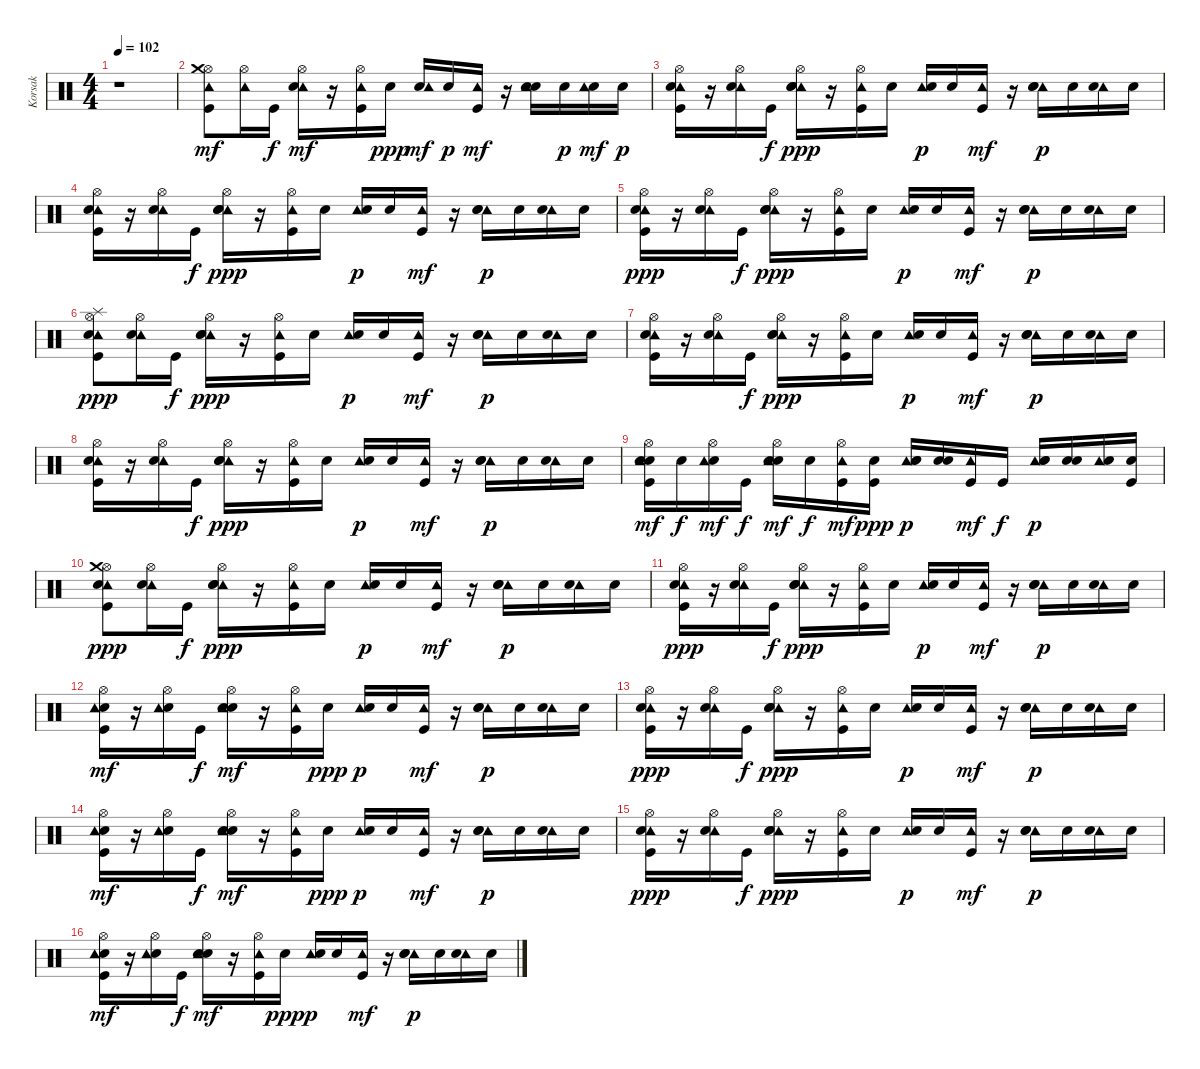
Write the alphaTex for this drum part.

\track ("Korsak" "Korsak") {instrument percussion}
\staff {score}
\articulation defaults
\ts (4 4)
\tempo 102
\clef neutral
\ks c
r.1{dy mf} |
("Hi-Hat (open)" "Tambourine (hit)" "Crash medium (hit)" "Kick (hit)").8 ("Hi-Hat (open)" "Tambourine (hit)").16 "Kick (hit)".16{dy f} ("Hi-Hat (open)" "Tambourine (hit)" "Snare (hit) 2").16{dy mf} r.16 ("Hi-Hat (open)" "Tambourine (hit)" "Kick (hit)").16 "Electric Snare (hit)".16{dy ppp} ("Electric Snare (hit)" "Tambourine (hit)").16{dy mf} "Electric Snare (hit)".16{dy p} ("Tambourine (hit)" "Kick (hit)").16{dy mf} r.16 ("Electric Snare (hit)" "Snare (hit) 2" "Tambourine (hit)").16 "Electric Snare (hit)".16{dy p} ("Electric Snare (hit)" "Tambourine (hit)").16{dy mf} "Electric Snare (hit)".16{dy p} |
("Tambourine (hit)" "Kick (hit)" "Hi-Hat (open)" "Electric Snare (hit)").16 r.16 ("Tambourine (hit)" "Hi-Hat (open)" "Electric Snare (hit)").16 "Kick (hit)".16{dy f} ("Tambourine (hit)" "Snare (hit) 2" "Hi-Hat (open)" "Electric Snare (hit)").16{dy ppp} r.16 ("Tambourine (hit)" "Kick (hit)" "Hi-Hat (open)").16 "Electric Snare (hit)".16 ("Tambourine (hit)" "Electric Snare (hit)").16{dy p} "Electric Snare (hit)".16 ("Tambourine (hit)" "Kick (hit)").16{dy mf} r.16 ("Tambourine (hit)" "Electric Snare (hit)" "Snare (hit) 2").16{dy p} "Electric Snare (hit)".16 ("Tambourine (hit)" "Electric Snare (hit)").16 "Electric Snare (hit)".16 |
("Tambourine (hit)" "Hi-Hat (open)" "Electric Snare (hit)" "Kick (hit)").16 r.16 ("Tambourine (hit)" "Hi-Hat (open)" "Electric Snare (hit)").16 "Kick (hit)".16{dy f} ("Tambourine (hit)" "Hi-Hat (open)" "Electric Snare (hit)" "Snare (hit) 2").16{dy ppp} r.16 ("Tambourine (hit)" "Hi-Hat (open)" "Kick (hit)").16 "Electric Snare (hit)".16 ("Tambourine (hit)" "Electric Snare (hit)").16{dy p} "Electric Snare (hit)".16 ("Tambourine (hit)" "Kick (hit)").16{dy mf} r.16 ("Tambourine (hit)" "Electric Snare (hit)" "Snare (hit) 2").16{dy p} "Electric Snare (hit)".16 ("Tambourine (hit)" "Electric Snare (hit)").16 "Electric Snare (hit)".16 |
("Tambourine (hit)" "Electric Snare (hit)" "Kick (hit)" "Hi-Hat (open)").16{dy ppp} r.16 ("Tambourine (hit)" "Electric Snare (hit)" "Hi-Hat (open)").16 "Kick (hit)".16{dy f} ("Tambourine (hit)" "Electric Snare (hit)" "Snare (hit) 2" "Hi-Hat (open)").16{dy ppp} r.16 ("Tambourine (hit)" "Kick (hit)" "Hi-Hat (open)").16 "Electric Snare (hit)".16 ("Tambourine (hit)" "Electric Snare (hit)").16{dy p} "Electric Snare (hit)".16 ("Tambourine (hit)" "Kick (hit)").16{dy mf} r.16 ("Tambourine (hit)" "Electric Snare (hit)" "Snare (hit) 2").16{dy p} "Electric Snare (hit)".16 ("Tambourine (hit)" "Electric Snare (hit)").16 "Electric Snare (hit)".16 |
("Splash (hit)" "Tambourine (hit)" "Kick (hit)" "Electric Snare (hit)" "Hi-Hat (open)").8{dy ppp} ("Tambourine (hit)" "Electric Snare (hit)" "Hi-Hat (open)").16 "Kick (hit)".16{dy f} ("Tambourine (hit)" "Snare (hit) 2" "Electric Snare (hit)" "Hi-Hat (open)").16{dy ppp} r.16 ("Tambourine (hit)" "Kick (hit)" "Hi-Hat (open)").16 "Electric Snare (hit)".16 ("Tambourine (hit)" "Electric Snare (hit)").16{dy p} "Electric Snare (hit)".16 ("Tambourine (hit)" "Kick (hit)").16{dy mf} r.16 ("Tambourine (hit)" "Electric Snare (hit)" "Snare (hit) 2").16{dy p} "Electric Snare (hit)".16 ("Tambourine (hit)" "Electric Snare (hit)").16 "Electric Snare (hit)".16 |
("Tambourine (hit)" "Hi-Hat (open)" "Electric Snare (hit)" "Kick (hit)").16 r.16 ("Tambourine (hit)" "Hi-Hat (open)" "Electric Snare (hit)").16 "Kick (hit)".16{dy f} ("Tambourine (hit)" "Hi-Hat (open)" "Electric Snare (hit)" "Snare (hit) 2").16{dy ppp} r.16 ("Tambourine (hit)" "Hi-Hat (open)" "Kick (hit)").16 "Electric Snare (hit)".16 ("Tambourine (hit)" "Electric Snare (hit)").16{dy p} "Electric Snare (hit)".16 ("Tambourine (hit)" "Kick (hit)").16{dy mf} r.16 ("Tambourine (hit)" "Electric Snare (hit)" "Snare (hit) 2").16{dy p} "Electric Snare (hit)".16 ("Tambourine (hit)" "Electric Snare (hit)").16 "Electric Snare (hit)".16 |
("Tambourine (hit)" "Kick (hit)" "Hi-Hat (open)" "Electric Snare (hit)").16 r.16 ("Tambourine (hit)" "Hi-Hat (open)" "Electric Snare (hit)").16 "Kick (hit)".16{dy f} ("Tambourine (hit)" "Snare (hit) 2" "Hi-Hat (open)" "Electric Snare (hit)").16{dy ppp} r.16 ("Tambourine (hit)" "Kick (hit)" "Hi-Hat (open)").16 "Electric Snare (hit)".16 ("Tambourine (hit)" "Electric Snare (hit)").16{dy p} "Electric Snare (hit)".16 ("Tambourine (hit)" "Kick (hit)").16{dy mf} r.16 ("Tambourine (hit)" "Electric Snare (hit)" "Snare (hit) 2").16{dy p} "Electric Snare (hit)".16 ("Tambourine (hit)" "Electric Snare (hit)").16 "Electric Snare (hit)".16 |
("Snare (hit) 2" "Kick (hit)" "Hi-Hat (open)" "Electric Snare (hit)" "Tambourine (hit)").16{dy mf} "Snare (hit) 2".16{dy f} ("Hi-Hat (open)" "Electric Snare (hit)" "Tambourine (hit)").16{dy mf} "Kick (hit)".16{dy f} ("Snare (hit) 2" "Hi-Hat (open)" "Electric Snare (hit)" "Tambourine (hit)").16{dy mf} "Snare (hit) 2".16{dy f} ("Kick (hit)" "Hi-Hat (open)" "Tambourine (hit)").16{dy mf} ("Kick (hit)" "Electric Snare (hit)").16{dy ppp} ("Tambourine (hit)" "Snare (hit) 2" "Electric Snare (hit)").16{dy p} ("Snare (hit) 2" "Electric Snare (hit)").16 ("Kick (hit)" "Tambourine (hit)").16{dy mf} "Kick (hit)".16{dy f} ("Tambourine (hit)" "Snare (hit) 2" "Electric Snare (hit)").16{dy p} ("Snare (hit) 2" "Electric Snare (hit)").16 ("Tambourine (hit)" "Electric Snare (hit)").16 ("Kick (hit)" "Electric Snare (hit)").16 |
("Tambourine (hit)" "Electric Snare (hit)" "Hi-Hat (open)" "Crash medium (hit)" "Kick (hit)").8{dy ppp} ("Tambourine (hit)" "Electric Snare (hit)" "Hi-Hat (open)").16 "Kick (hit)".16{dy f} ("Tambourine (hit)" "Electric Snare (hit)" "Hi-Hat (open)" "Snare (hit) 2").16{dy ppp} r.16 ("Tambourine (hit)" "Hi-Hat (open)" "Kick (hit)").16 "Electric Snare (hit)".16 ("Tambourine (hit)" "Electric Snare (hit)").16{dy p} "Electric Snare (hit)".16 ("Tambourine (hit)" "Kick (hit)").16{dy mf} r.16 ("Tambourine (hit)" "Electric Snare (hit)" "Snare (hit) 2").16{dy p} "Electric Snare (hit)".16 ("Tambourine (hit)" "Electric Snare (hit)").16 "Electric Snare (hit)".16 |
("Tambourine (hit)" "Electric Snare (hit)" "Kick (hit)" "Hi-Hat (open)").16{dy ppp} r.16 ("Tambourine (hit)" "Electric Snare (hit)" "Hi-Hat (open)").16 "Kick (hit)".16{dy f} ("Tambourine (hit)" "Electric Snare (hit)" "Snare (hit) 2" "Hi-Hat (open)").16{dy ppp} r.16 ("Tambourine (hit)" "Kick (hit)" "Hi-Hat (open)").16 "Electric Snare (hit)".16 ("Tambourine (hit)" "Electric Snare (hit)").16{dy p} "Electric Snare (hit)".16 ("Tambourine (hit)" "Kick (hit)").16{dy mf} r.16 ("Tambourine (hit)" "Electric Snare (hit)" "Snare (hit) 2").16{dy p} "Electric Snare (hit)".16 ("Tambourine (hit)" "Electric Snare (hit)").16 "Electric Snare (hit)".16 |
("Hi-Hat (open)" "Electric Snare (hit)" "Tambourine (hit)" "Kick (hit)").16{dy mf} r.16 ("Hi-Hat (open)" "Electric Snare (hit)" "Tambourine (hit)").16 "Kick (hit)".16{dy f} ("Hi-Hat (open)" "Electric Snare (hit)" "Tambourine (hit)" "Snare (hit) 2").16{dy mf} r.16 ("Hi-Hat (open)" "Tambourine (hit)" "Kick (hit)").16 "Electric Snare (hit)".16{dy ppp} ("Tambourine (hit)" "Electric Snare (hit)").16{dy p} "Electric Snare (hit)".16 ("Tambourine (hit)" "Kick (hit)").16{dy mf} r.16 ("Tambourine (hit)" "Electric Snare (hit)" "Snare (hit) 2").16{dy p} "Electric Snare (hit)".16 ("Tambourine (hit)" "Electric Snare (hit)").16 "Electric Snare (hit)".16 |
("Tambourine (hit)" "Electric Snare (hit)" "Hi-Hat (open)" "Kick (hit)").16{dy ppp} r.16 ("Tambourine (hit)" "Electric Snare (hit)" "Hi-Hat (open)").16 "Kick (hit)".16{dy f} ("Tambourine (hit)" "Electric Snare (hit)" "Hi-Hat (open)" "Snare (hit) 2").16{dy ppp} r.16 ("Tambourine (hit)" "Hi-Hat (open)" "Kick (hit)").16 "Electric Snare (hit)".16 ("Tambourine (hit)" "Electric Snare (hit)").16{dy p} "Electric Snare (hit)".16 ("Tambourine (hit)" "Kick (hit)").16{dy mf} r.16 ("Tambourine (hit)" "Electric Snare (hit)" "Snare (hit) 2").16{dy p} "Electric Snare (hit)".16 ("Tambourine (hit)" "Electric Snare (hit)").16 "Electric Snare (hit)".16 |
("Hi-Hat (open)" "Kick (hit)" "Electric Snare (hit)" "Tambourine (hit)").16{dy mf} r.16 ("Hi-Hat (open)" "Electric Snare (hit)" "Tambourine (hit)").16 "Kick (hit)".16{dy f} ("Hi-Hat (open)" "Snare (hit) 2" "Electric Snare (hit)" "Tambourine (hit)").16{dy mf} r.16 ("Hi-Hat (open)" "Kick (hit)" "Tambourine (hit)").16 "Electric Snare (hit)".16{dy ppp} ("Tambourine (hit)" "Electric Snare (hit)").16{dy p} "Electric Snare (hit)".16 ("Kick (hit)" "Tambourine (hit)").16{dy mf} r.16 ("Tambourine (hit)" "Electric Snare (hit)" "Snare (hit) 2").16{dy p} "Electric Snare (hit)".16 ("Tambourine (hit)" "Electric Snare (hit)").16 "Electric Snare (hit)".16 |
("Tambourine (hit)" "Electric Snare (hit)" "Hi-Hat (open)" "Kick (hit)").16{dy ppp} r.16 ("Tambourine (hit)" "Electric Snare (hit)" "Hi-Hat (open)").16 "Kick (hit)".16{dy f} ("Tambourine (hit)" "Electric Snare (hit)" "Hi-Hat (open)" "Snare (hit) 2").16{dy ppp} r.16 ("Tambourine (hit)" "Hi-Hat (open)" "Kick (hit)").16 "Electric Snare (hit)".16 ("Tambourine (hit)" "Electric Snare (hit)").16{dy p} "Electric Snare (hit)".16 ("Tambourine (hit)" "Kick (hit)").16{dy mf} r.16 ("Tambourine (hit)" "Electric Snare (hit)" "Snare (hit) 2").16{dy p} "Electric Snare (hit)".16 ("Tambourine (hit)" "Electric Snare (hit)").16 "Electric Snare (hit)".16 |
("Kick (hit)" "Electric Snare (hit)" "Hi-Hat (open)" "Tambourine (hit)").16{dy mf} r.16 ("Electric Snare (hit)" "Hi-Hat (open)" "Tambourine (hit)").16 "Kick (hit)".16{dy f} ("Snare (hit) 2" "Electric Snare (hit)" "Hi-Hat (open)" "Tambourine (hit)").16{dy mf} r.16 ("Kick (hit)" "Hi-Hat (open)" "Tambourine (hit)").16 "Electric Snare (hit)".16{dy ppp} ("Tambourine (hit)" "Electric Snare (hit)").16{dy p} "Electric Snare (hit)".16 ("Kick (hit)" "Tambourine (hit)").16{dy mf} r.16 ("Tambourine (hit)" "Electric Snare (hit)" "Snare (hit) 2").16{dy p} "Electric Snare (hit)".16 ("Tambourine (hit)" "Electric Snare (hit)").16 "Electric Snare (hit)".16
